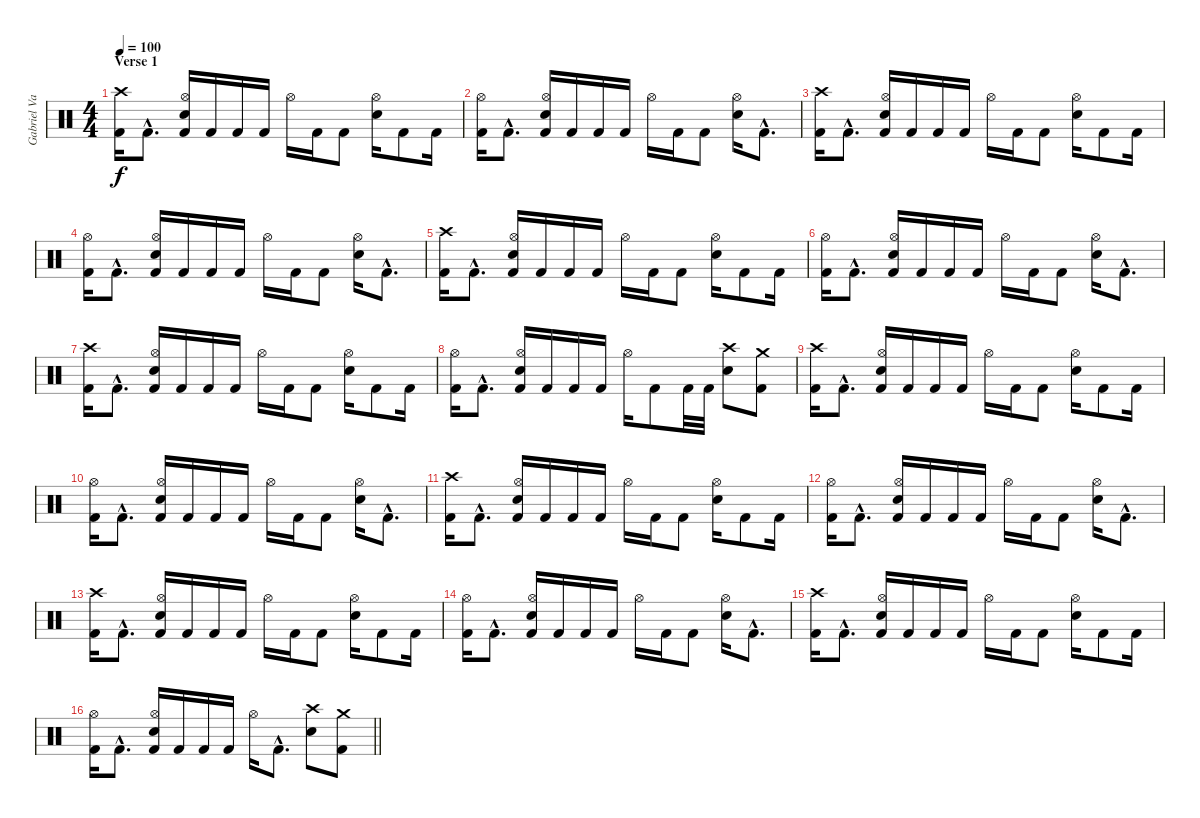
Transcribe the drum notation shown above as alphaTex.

\track ("Gabriel Valerio" "Gabriel Va") {instrument percussion}
\staff {score}
\articulation defaults
\ts (4 4)
\section ("" "Verse 1")
\tempo 100
\clef neutral
\ks c
("Crash high (hit)" "Kick (hit) 2").16{dy f} "Kick (hit) 2"{hac}.8{d} ("Hi-Hat (open)" "Snare (hit) 2" "Kick (hit) 2").16 "Kick (hit) 2".16 "Kick (hit) 2".16 "Kick (hit) 2".16 "Hi-Hat (open)".16 "Kick (hit) 2".16 "Kick (hit) 2".8 ("Hi-Hat (open)" "Snare (hit) 2").16 "Kick (hit) 2".8 "Kick (hit) 2".16 |
("Hi-Hat (open)" "Kick (hit) 2").16 "Kick (hit) 2"{hac}.8{d} ("Hi-Hat (open)" "Snare (hit) 2" "Kick (hit) 2").16 "Kick (hit) 2".16 "Kick (hit) 2".16 "Kick (hit) 2".16 "Hi-Hat (open)".16 "Kick (hit) 2".16 "Kick (hit) 2".8 ("Hi-Hat (open)" "Snare (hit) 2").16 "Kick (hit) 2"{hac}.8{d} |
("Crash high (hit)" "Kick (hit) 2").16 "Kick (hit) 2"{hac}.8{d} ("Hi-Hat (open)" "Snare (hit) 2" "Kick (hit) 2").16 "Kick (hit) 2".16 "Kick (hit) 2".16 "Kick (hit) 2".16 "Hi-Hat (open)".16 "Kick (hit) 2".16 "Kick (hit) 2".8 ("Hi-Hat (open)" "Snare (hit) 2").16 "Kick (hit) 2".8 "Kick (hit) 2".16 |
("Hi-Hat (open)" "Kick (hit) 2").16 "Kick (hit) 2"{hac}.8{d} ("Hi-Hat (open)" "Snare (hit) 2" "Kick (hit) 2").16 "Kick (hit) 2".16 "Kick (hit) 2".16 "Kick (hit) 2".16 "Hi-Hat (open)".16 "Kick (hit) 2".16 "Kick (hit) 2".8 ("Hi-Hat (open)" "Snare (hit) 2").16 "Kick (hit) 2"{hac}.8{d} |
("Crash high (hit)" "Kick (hit) 2").16 "Kick (hit) 2"{hac}.8{d} ("Hi-Hat (open)" "Snare (hit) 2" "Kick (hit) 2").16 "Kick (hit) 2".16 "Kick (hit) 2".16 "Kick (hit) 2".16 "Hi-Hat (open)".16 "Kick (hit) 2".16 "Kick (hit) 2".8 ("Hi-Hat (open)" "Snare (hit) 2").16 "Kick (hit) 2".8 "Kick (hit) 2".16 |
("Hi-Hat (open)" "Kick (hit) 2").16 "Kick (hit) 2"{hac}.8{d} ("Hi-Hat (open)" "Snare (hit) 2" "Kick (hit) 2").16 "Kick (hit) 2".16 "Kick (hit) 2".16 "Kick (hit) 2".16 "Hi-Hat (open)".16 "Kick (hit) 2".16 "Kick (hit) 2".8 ("Hi-Hat (open)" "Snare (hit) 2").16 "Kick (hit) 2"{hac}.8{d} |
("Crash high (hit)" "Kick (hit) 2").16 "Kick (hit) 2"{hac}.8{d} ("Hi-Hat (open)" "Snare (hit) 2" "Kick (hit) 2").16 "Kick (hit) 2".16 "Kick (hit) 2".16 "Kick (hit) 2".16 "Hi-Hat (open)".16 "Kick (hit) 2".16 "Kick (hit) 2".8 ("Hi-Hat (open)" "Snare (hit) 2").16 "Kick (hit) 2".8 "Kick (hit) 2".16 |
("Hi-Hat (open)" "Kick (hit) 2").16 "Kick (hit) 2"{hac}.8{d} ("Hi-Hat (open)" "Snare (hit) 2" "Kick (hit) 2").16 "Kick (hit) 2".16 "Kick (hit) 2".16 "Kick (hit) 2".16 "Hi-Hat (open)".16 "Kick (hit) 2".8 "Kick (hit) 2".32 "Kick (hit) 2".32 ("Crash high (hit)" "Snare (hit) 2").8 ("Crash medium (hit)" "Kick (hit) 2").8 |
("Crash high (hit)" "Kick (hit) 2").16 "Kick (hit) 2"{hac}.8{d} ("Hi-Hat (open)" "Snare (hit) 2" "Kick (hit) 2").16 "Kick (hit) 2".16 "Kick (hit) 2".16 "Kick (hit) 2".16 "Hi-Hat (open)".16 "Kick (hit) 2".16 "Kick (hit) 2".8 ("Hi-Hat (open)" "Snare (hit) 2").16 "Kick (hit) 2".8 "Kick (hit) 2".16 |
("Hi-Hat (open)" "Kick (hit) 2").16 "Kick (hit) 2"{hac}.8{d} ("Hi-Hat (open)" "Snare (hit) 2" "Kick (hit) 2").16 "Kick (hit) 2".16 "Kick (hit) 2".16 "Kick (hit) 2".16 "Hi-Hat (open)".16 "Kick (hit) 2".16 "Kick (hit) 2".8 ("Hi-Hat (open)" "Snare (hit) 2").16 "Kick (hit) 2"{hac}.8{d} |
("Crash high (hit)" "Kick (hit) 2").16 "Kick (hit) 2"{hac}.8{d} ("Hi-Hat (open)" "Snare (hit) 2" "Kick (hit) 2").16 "Kick (hit) 2".16 "Kick (hit) 2".16 "Kick (hit) 2".16 "Hi-Hat (open)".16 "Kick (hit) 2".16 "Kick (hit) 2".8 ("Hi-Hat (open)" "Snare (hit) 2").16 "Kick (hit) 2".8 "Kick (hit) 2".16 |
("Hi-Hat (open)" "Kick (hit) 2").16 "Kick (hit) 2"{hac}.8{d} ("Hi-Hat (open)" "Snare (hit) 2" "Kick (hit) 2").16 "Kick (hit) 2".16 "Kick (hit) 2".16 "Kick (hit) 2".16 "Hi-Hat (open)".16 "Kick (hit) 2".16 "Kick (hit) 2".8 ("Hi-Hat (open)" "Snare (hit) 2").16 "Kick (hit) 2"{hac}.8{d} |
("Crash high (hit)" "Kick (hit) 2").16 "Kick (hit) 2"{hac}.8{d} ("Hi-Hat (open)" "Snare (hit) 2" "Kick (hit) 2").16 "Kick (hit) 2".16 "Kick (hit) 2".16 "Kick (hit) 2".16 "Hi-Hat (open)".16 "Kick (hit) 2".16 "Kick (hit) 2".8 ("Hi-Hat (open)" "Snare (hit) 2").16 "Kick (hit) 2".8 "Kick (hit) 2".16 |
("Hi-Hat (open)" "Kick (hit) 2").16 "Kick (hit) 2"{hac}.8{d} ("Hi-Hat (open)" "Snare (hit) 2" "Kick (hit) 2").16 "Kick (hit) 2".16 "Kick (hit) 2".16 "Kick (hit) 2".16 "Hi-Hat (open)".16 "Kick (hit) 2".16 "Kick (hit) 2".8 ("Hi-Hat (open)" "Snare (hit) 2").16 "Kick (hit) 2"{hac}.8{d} |
("Crash high (hit)" "Kick (hit) 2").16 "Kick (hit) 2"{hac}.8{d} ("Hi-Hat (open)" "Snare (hit) 2" "Kick (hit) 2").16 "Kick (hit) 2".16 "Kick (hit) 2".16 "Kick (hit) 2".16 "Hi-Hat (open)".16 "Kick (hit) 2".16 "Kick (hit) 2".8 ("Hi-Hat (open)" "Snare (hit) 2").16 "Kick (hit) 2".8 "Kick (hit) 2".16 |
\barLineRight lightlight
("Hi-Hat (open)" "Kick (hit) 2").16 "Kick (hit) 2"{hac}.8{d} ("Hi-Hat (open)" "Snare (hit) 2" "Kick (hit) 2").16 "Kick (hit) 2".16 "Kick (hit) 2".16 "Kick (hit) 2".16 "Hi-Hat (open)".16 "Kick (hit) 2"{hac}.8{d} ("Crash high (hit)" "Snare (hit) 2").8 ("Crash medium (hit)" "Kick (hit) 2").8
